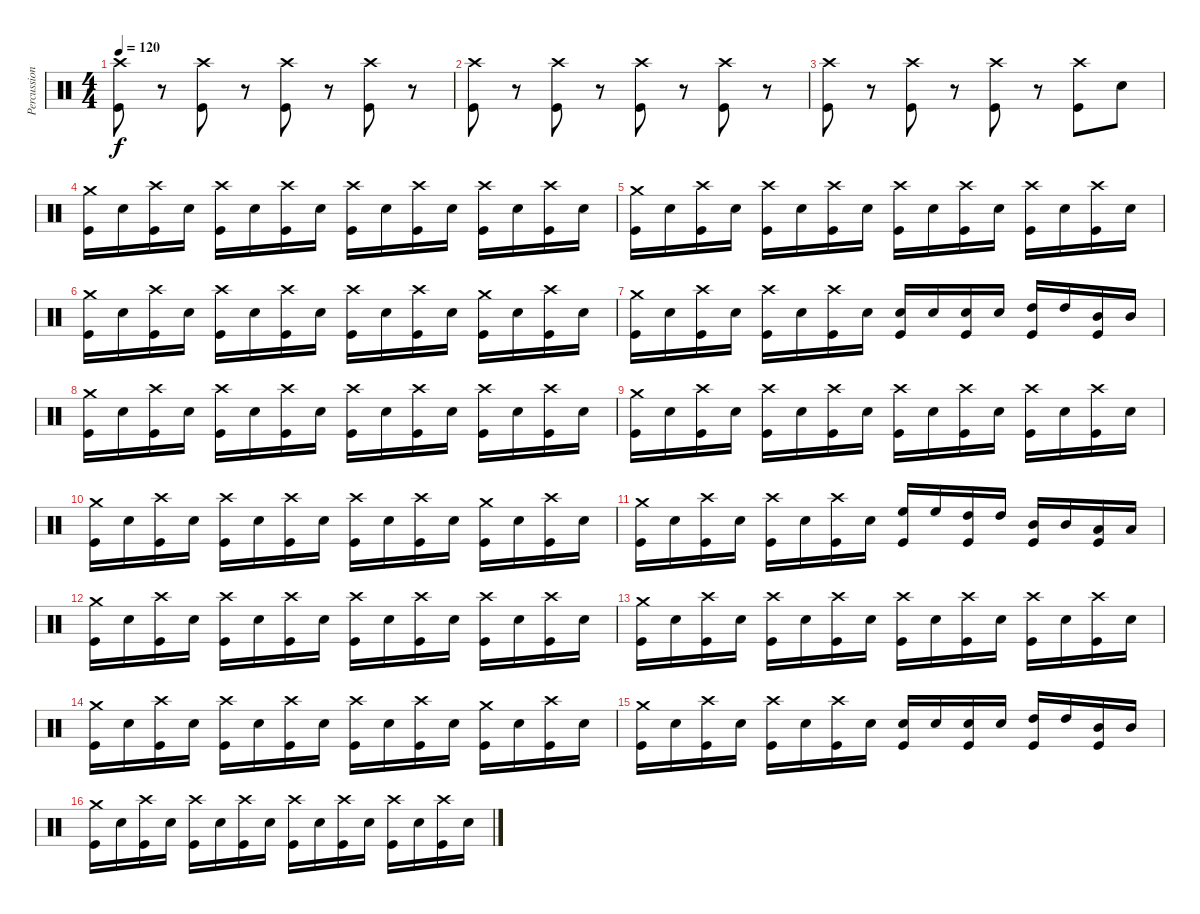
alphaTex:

\track ("Percussioni" "Percussion") {instrument percussion}
\staff {score}
\articulation defaults
\ts (4 4)
\tempo 120
\clef neutral
\ks c
("Crash high (hit)" "Kick (hit)").8{dy f volume 16} r.8{volume 0} ("Crash high (hit)" "Kick (hit)").8{volume 16} r.8{volume 0} ("Crash high (hit)" "Kick (hit)").8{volume 16} r.8{volume 0} ("Crash high (hit)" "Kick (hit)").8{volume 16} r.8{volume 0} |
("Crash high (hit)" "Kick (hit)").8{volume 16} r.8{volume 0} ("Crash high (hit)" "Kick (hit)").8{volume 16} r.8{volume 0} ("Crash high (hit)" "Kick (hit)").8{volume 16} r.8{volume 0} ("Crash high (hit)" "Kick (hit)").8{volume 16} r.8{volume 0} |
("Crash high (hit)" "Kick (hit)").8{volume 16} r.8{volume 0} ("Crash high (hit)" "Kick (hit)").8{volume 16} r.8{volume 0} ("Crash high (hit)" "Kick (hit)").8{volume 16} r.8{volume 0} ("Crash high (hit)" "Kick (hit)").8{volume 16} "Electric Snare (hit)".8{volume 16} |
("Crash medium (hit)" "Kick (hit)").16 "Electric Snare (hit)".16 ("Crash high (hit)" "Kick (hit)").16 "Electric Snare (hit)".16 ("Crash high (hit)" "Kick (hit)").16 "Electric Snare (hit)".16 ("Crash high (hit)" "Kick (hit)").16 "Electric Snare (hit)".16 ("Crash high (hit)" "Kick (hit)").16 "Electric Snare (hit)".16 ("Crash high (hit)" "Kick (hit)").16 "Electric Snare (hit)".16 ("Crash high (hit)" "Kick (hit)").16 "Electric Snare (hit)".16 ("Crash high (hit)" "Kick (hit)").16 "Electric Snare (hit)".16 |
("Crash medium (hit)" "Kick (hit)").16 "Electric Snare (hit)".16 ("Crash high (hit)" "Kick (hit)").16 "Electric Snare (hit)".16 ("Crash high (hit)" "Kick (hit)").16 "Electric Snare (hit)".16 ("Crash high (hit)" "Kick (hit)").16 "Electric Snare (hit)".16 ("Crash high (hit)" "Kick (hit)").16 "Electric Snare (hit)".16 ("Crash high (hit)" "Kick (hit)").16 "Electric Snare (hit)".16 ("Crash high (hit)" "Kick (hit)").16 "Electric Snare (hit)".16 ("Crash high (hit)" "Kick (hit)").16 "Electric Snare (hit)".16 |
("Crash medium (hit)" "Kick (hit)").16 "Electric Snare (hit)".16 ("Crash high (hit)" "Kick (hit)").16 "Electric Snare (hit)".16 ("Crash high (hit)" "Kick (hit)").16 "Electric Snare (hit)".16 ("Crash high (hit)" "Kick (hit)").16 "Electric Snare (hit)".16 ("Crash high (hit)" "Kick (hit)").16 "Electric Snare (hit)".16 ("Crash high (hit)" "Kick (hit)").16 "Electric Snare (hit)".16 ("Crash medium (hit)" "Kick (hit)").16 "Electric Snare (hit)".16 ("Crash high (hit)" "Kick (hit)").16 "Electric Snare (hit)".16 |
("Crash medium (hit)" "Kick (hit)").16 "Electric Snare (hit)".16 ("Crash high (hit)" "Kick (hit)").16 "Electric Snare (hit)".16 ("Crash high (hit)" "Kick (hit)").16 "Electric Snare (hit)".16 ("Crash high (hit)" "Kick (hit)").16 "Electric Snare (hit)".16 ("Electric Snare (hit)" "Kick (hit)").16 "Electric Snare (hit)".16 ("Electric Snare (hit)" "Kick (hit)").16 "Electric Snare (hit)".16 ("High Tom (hit)" "Kick (hit)").16 "High Tom (hit)".16 ("Mid Tom (hit)" "Kick (hit)").16 "Mid Tom (hit)".16 |
("Crash medium (hit)" "Kick (hit)").16 "Electric Snare (hit)".16 ("Crash high (hit)" "Kick (hit)").16 "Electric Snare (hit)".16 ("Crash high (hit)" "Kick (hit)").16 "Electric Snare (hit)".16 ("Crash high (hit)" "Kick (hit)").16 "Electric Snare (hit)".16 ("Crash high (hit)" "Kick (hit)").16 "Electric Snare (hit)".16 ("Crash high (hit)" "Kick (hit)").16 "Electric Snare (hit)".16 ("Crash high (hit)" "Kick (hit)").16 "Electric Snare (hit)".16 ("Crash high (hit)" "Kick (hit)").16 "Electric Snare (hit)".16 |
("Crash medium (hit)" "Kick (hit)").16 "Electric Snare (hit)".16 ("Crash high (hit)" "Kick (hit)").16 "Electric Snare (hit)".16 ("Crash high (hit)" "Kick (hit)").16 "Electric Snare (hit)".16 ("Crash high (hit)" "Kick (hit)").16 "Electric Snare (hit)".16 ("Crash high (hit)" "Kick (hit)").16 "Electric Snare (hit)".16 ("Crash high (hit)" "Kick (hit)").16 "Electric Snare (hit)".16 ("Crash high (hit)" "Kick (hit)").16 "Electric Snare (hit)".16 ("Crash high (hit)" "Kick (hit)").16 "Electric Snare (hit)".16 |
("Crash medium (hit)" "Kick (hit)").16 "Electric Snare (hit)".16 ("Crash high (hit)" "Kick (hit)").16 "Electric Snare (hit)".16 ("Crash high (hit)" "Kick (hit)").16 "Electric Snare (hit)".16 ("Crash high (hit)" "Kick (hit)").16 "Electric Snare (hit)".16 ("Crash high (hit)" "Kick (hit)").16 "Electric Snare (hit)".16 ("Crash high (hit)" "Kick (hit)").16 "Electric Snare (hit)".16 ("Crash medium (hit)" "Kick (hit)").16 "Electric Snare (hit)".16 ("Crash high (hit)" "Kick (hit)").16 "Electric Snare (hit)".16 |
("Crash medium (hit)" "Kick (hit)").16 "Electric Snare (hit)".16 ("Crash high (hit)" "Kick (hit)").16 "Electric Snare (hit)".16 ("Crash high (hit)" "Kick (hit)").16 "Electric Snare (hit)".16 ("Crash high (hit)" "Kick (hit)").16 "Electric Snare (hit)".16 ("High Floor Tom (hit)" "Kick (hit)").16 "High Floor Tom (hit)".16 ("High Tom (hit)" "Kick (hit)").16 "High Tom (hit)".16 ("Mid Tom (hit)" "Kick (hit)").16 "Mid Tom (hit)".16 ("Low Tom (hit)" "Kick (hit)").16 "Low Tom (hit)".16 |
("Crash medium (hit)" "Kick (hit)").16 "Electric Snare (hit)".16 ("Crash high (hit)" "Kick (hit)").16 "Electric Snare (hit)".16 ("Crash high (hit)" "Kick (hit)").16 "Electric Snare (hit)".16 ("Crash high (hit)" "Kick (hit)").16 "Electric Snare (hit)".16 ("Crash high (hit)" "Kick (hit)").16 "Electric Snare (hit)".16 ("Crash high (hit)" "Kick (hit)").16 "Electric Snare (hit)".16 ("Crash high (hit)" "Kick (hit)").16 "Electric Snare (hit)".16 ("Crash high (hit)" "Kick (hit)").16 "Electric Snare (hit)".16 |
("Crash medium (hit)" "Kick (hit)").16 "Electric Snare (hit)".16 ("Crash high (hit)" "Kick (hit)").16 "Electric Snare (hit)".16 ("Crash high (hit)" "Kick (hit)").16 "Electric Snare (hit)".16 ("Crash high (hit)" "Kick (hit)").16 "Electric Snare (hit)".16 ("Crash high (hit)" "Kick (hit)").16 "Electric Snare (hit)".16 ("Crash high (hit)" "Kick (hit)").16 "Electric Snare (hit)".16 ("Crash high (hit)" "Kick (hit)").16 "Electric Snare (hit)".16 ("Crash high (hit)" "Kick (hit)").16 "Electric Snare (hit)".16 |
("Crash medium (hit)" "Kick (hit)").16 "Electric Snare (hit)".16 ("Crash high (hit)" "Kick (hit)").16 "Electric Snare (hit)".16 ("Crash high (hit)" "Kick (hit)").16 "Electric Snare (hit)".16 ("Crash high (hit)" "Kick (hit)").16 "Electric Snare (hit)".16 ("Crash high (hit)" "Kick (hit)").16 "Electric Snare (hit)".16 ("Crash high (hit)" "Kick (hit)").16 "Electric Snare (hit)".16 ("Crash medium (hit)" "Kick (hit)").16 "Electric Snare (hit)".16 ("Crash high (hit)" "Kick (hit)").16 "Electric Snare (hit)".16 |
("Crash medium (hit)" "Kick (hit)").16 "Electric Snare (hit)".16 ("Crash high (hit)" "Kick (hit)").16 "Electric Snare (hit)".16 ("Crash high (hit)" "Kick (hit)").16 "Electric Snare (hit)".16 ("Crash high (hit)" "Kick (hit)").16 "Electric Snare (hit)".16 ("Electric Snare (hit)" "Kick (hit)").16 "Electric Snare (hit)".16 ("Electric Snare (hit)" "Kick (hit)").16 "Electric Snare (hit)".16 ("High Tom (hit)" "Kick (hit)").16 "High Tom (hit)".16 ("Mid Tom (hit)" "Kick (hit)").16 "Mid Tom (hit)".16 |
("Crash medium (hit)" "Kick (hit)").16 "Electric Snare (hit)".16 ("Crash high (hit)" "Kick (hit)").16 "Electric Snare (hit)".16 ("Crash high (hit)" "Kick (hit)").16 "Electric Snare (hit)".16 ("Crash high (hit)" "Kick (hit)").16 "Electric Snare (hit)".16 ("Crash high (hit)" "Kick (hit)").16 "Electric Snare (hit)".16 ("Crash high (hit)" "Kick (hit)").16 "Electric Snare (hit)".16 ("Crash high (hit)" "Kick (hit)").16 "Electric Snare (hit)".16 ("Crash high (hit)" "Kick (hit)").16 "Electric Snare (hit)".16
